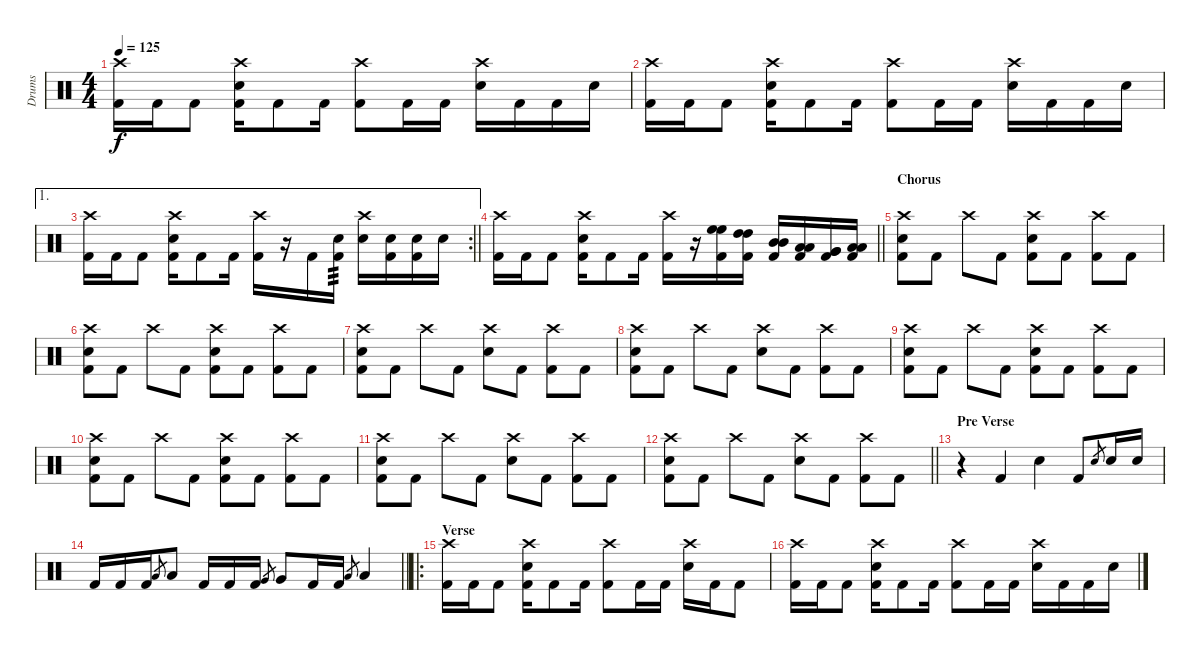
\track ("Drums" "Drums") {instrument percussion}
\staff {score}
\articulation defaults
\ts (4 4)
\tempo 125
\clef neutral
\ks c
("Crash high (hit)" "Kick (hit) 2").16{dy f} "Kick (hit) 2".16 "Kick (hit) 2".8 ("Crash high (hit)" "Electric Snare (hit)" "Kick (hit) 2").16 "Kick (hit) 2".8 "Kick (hit) 2".16 ("Crash high (hit)" "Kick (hit) 2").8 "Kick (hit) 2".16 "Kick (hit) 2".16 ("Crash high (hit)" "Electric Snare (hit)").16 "Kick (hit) 2".16 "Kick (hit) 2".16 "Electric Snare (hit)".16 |
("Crash high (hit)" "Kick (hit) 2").16 "Kick (hit) 2".16 "Kick (hit) 2".8 ("Crash high (hit)" "Electric Snare (hit)" "Kick (hit) 2").16 "Kick (hit) 2".8 "Kick (hit) 2".16 ("Crash high (hit)" "Kick (hit) 2").8 "Kick (hit) 2".16 "Kick (hit) 2".16 ("Crash high (hit)" "Electric Snare (hit)").16 "Kick (hit) 2".16 "Kick (hit) 2".16 "Electric Snare (hit)".16 |
\ae 1
\rc 2
\barLineRight lightlight
("Crash high (hit)" "Kick (hit) 2").16 "Kick (hit) 2".16 "Kick (hit) 2".8 ("Crash high (hit)" "Electric Snare (hit)" "Kick (hit) 2").16 "Kick (hit) 2".8 "Kick (hit) 2".16 ("Crash high (hit)" "Kick (hit) 2").16 r.16 "Kick (hit) 2".16 ("Electric Snare (hit)" "Kick (hit) 2").16{tp 3} ("Crash high (hit)" "Electric Snare (hit)").16 ("Electric Snare (hit)" "Kick (hit) 2").16 ("Electric Snare (hit)" "Kick (hit) 2").16 "Electric Snare (hit)".16 |
\barLineRight lightlight
("Crash high (hit)" "Kick (hit) 2").16 "Kick (hit) 2".16 "Kick (hit) 2".8 ("Crash high (hit)" "Electric Snare (hit)" "Kick (hit) 2").16 "Kick (hit) 2".8 "Kick (hit) 2".16 ("Crash high (hit)" "Kick (hit) 2").16 r.16 ("High Floor Tom (hit)" "High Floor Tom (hit)" "Kick (hit) 2").16 ("High Tom (hit)" "High Tom (hit)" "Kick (hit) 2").16 ("Mid Tom (hit)" "Mid Tom (hit)" "Kick (hit) 2").16 ("Low Tom (hit)" "Low Tom (hit)" "Kick (hit) 2").16 ("Very Low Tom (hit)" "Very Low Tom (hit)" "Kick (hit) 2").16 ("Low Floor Tom (hit)" "Low Floor Tom (hit)" "Kick (hit) 2").16 |
\section ("" "Chorus")
("Crash high (hit)" "Electric Snare (hit)" "Kick (hit) 2").8 "Kick (hit) 2".8 "Crash high (hit)".8 "Kick (hit) 2".8 ("Crash high (hit)" "Electric Snare (hit)" "Kick (hit) 2").8 "Kick (hit) 2".8 ("Crash high (hit)" "Kick (hit) 2").8 "Kick (hit) 2".8 |
("Crash high (hit)" "Electric Snare (hit)" "Kick (hit) 2").8 "Kick (hit) 2".8 "Crash high (hit)".8 "Kick (hit) 2".8 ("Crash high (hit)" "Electric Snare (hit)" "Kick (hit) 2").8 "Kick (hit) 2".8 ("Crash high (hit)" "Kick (hit) 2").8 "Kick (hit) 2".8 |
("Crash high (hit)" "Electric Snare (hit)" "Kick (hit) 2").8 "Kick (hit) 2".8 "Crash high (hit)".8 "Kick (hit) 2".8 ("Crash high (hit)" "Electric Snare (hit)").8 "Kick (hit) 2".8 ("Crash high (hit)" "Kick (hit) 2").8 "Kick (hit) 2".8 |
("Crash high (hit)" "Electric Snare (hit)" "Kick (hit) 2").8 "Kick (hit) 2".8 "Crash high (hit)".8 "Kick (hit) 2".8 ("Crash high (hit)" "Electric Snare (hit)").8 "Kick (hit) 2".8 ("Crash high (hit)" "Kick (hit) 2").8 "Kick (hit) 2".8 |
("Crash high (hit)" "Electric Snare (hit)" "Kick (hit) 2").8 "Kick (hit) 2".8 "Crash high (hit)".8 "Kick (hit) 2".8 ("Crash high (hit)" "Electric Snare (hit)" "Kick (hit) 2").8 "Kick (hit) 2".8 ("Crash high (hit)" "Kick (hit) 2").8 "Kick (hit) 2".8 |
("Crash high (hit)" "Electric Snare (hit)" "Kick (hit) 2").8 "Kick (hit) 2".8 "Crash high (hit)".8 "Kick (hit) 2".8 ("Crash high (hit)" "Electric Snare (hit)" "Kick (hit) 2").8 "Kick (hit) 2".8 ("Crash high (hit)" "Kick (hit) 2").8 "Kick (hit) 2".8 |
("Crash high (hit)" "Electric Snare (hit)" "Kick (hit) 2").8 "Kick (hit) 2".8 "Crash high (hit)".8 "Kick (hit) 2".8 ("Crash high (hit)" "Electric Snare (hit)").8 "Kick (hit) 2".8 ("Crash high (hit)" "Kick (hit) 2").8 "Kick (hit) 2".8 |
\barLineRight lightlight
("Crash high (hit)" "Electric Snare (hit)" "Kick (hit) 2").8 "Kick (hit) 2".8 "Crash high (hit)".8 "Kick (hit) 2".8 ("Crash high (hit)" "Electric Snare (hit)").8 "Kick (hit) 2".8 ("Crash high (hit)" "Kick (hit) 2").8 "Kick (hit) 2".8 |
\section ("" "Pre Verse")
r.4 "Kick (hit) 2".4 "Electric Snare (hit)".4 "Kick (hit) 2".8 "Electric Snare (hit)".8{gr} "Electric Snare (hit)".16 "Electric Snare (hit)".16 |
\barLineRight lightlight "Kick (hit) 2".16 "Kick (hit) 2".16 "Kick (hit) 2".16 "Low Tom (hit)".8{gr} "Low Tom (hit)".8 "Kick (hit) 2".16 "Kick (hit) 2".16 "Kick (hit) 2".16 "Very Low Tom (hit)".8{gr} "Very Low Tom (hit)".8 "Kick (hit) 2".16 "Kick (hit) 2".16 "Low Floor Tom (hit)".8{gr} "Low Floor Tom (hit)".4
|
\ro
\section ("" "Verse")
("Crash high (hit)" "Kick (hit) 2").16 "Kick (hit) 2".16 "Kick (hit) 2".8 ("Crash high (hit)" "Electric Snare (hit)" "Kick (hit) 2").16 "Kick (hit) 2".8 "Kick (hit) 2".16 ("Crash high (hit)" "Kick (hit) 2").8 "Kick (hit) 2".16 "Kick (hit) 2".16 ("Crash high (hit)" "Electric Snare (hit)").16 "Kick (hit) 2".16 "Kick (hit) 2".8 |
("Crash high (hit)" "Kick (hit) 2").16 "Kick (hit) 2".16 "Kick (hit) 2".8 ("Crash high (hit)" "Electric Snare (hit)" "Kick (hit) 2").16 "Kick (hit) 2".8 "Kick (hit) 2".16 ("Crash high (hit)" "Kick (hit) 2").8 "Kick (hit) 2".16 "Kick (hit) 2".16 ("Crash high (hit)" "Electric Snare (hit)").16 "Kick (hit) 2".16 "Kick (hit) 2".16 "Electric Snare (hit)".16
